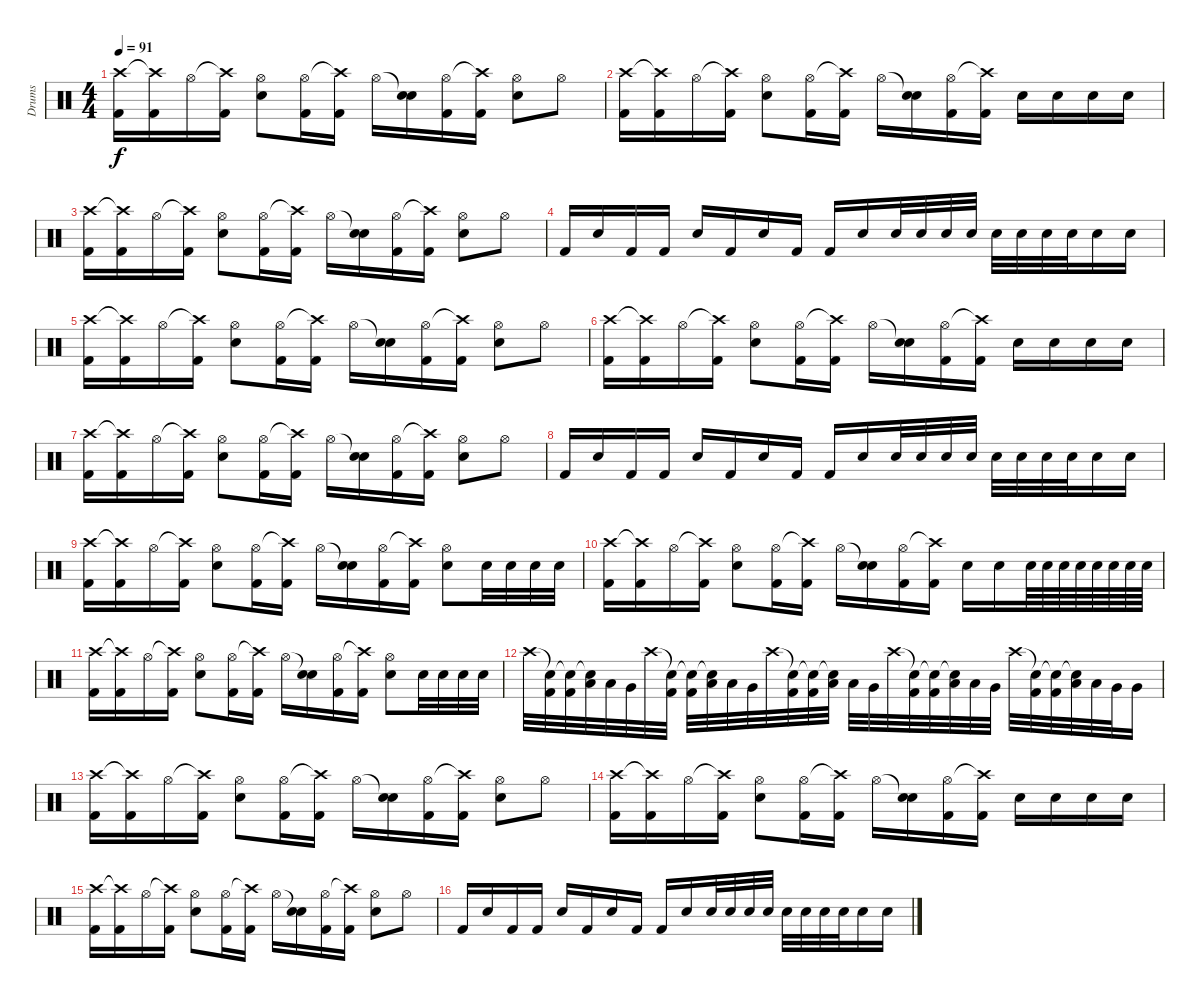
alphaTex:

\track ("Drums" "Drums") {instrument percussion}
\staff {score}
\articulation defaults
\ts (4 4)
\tempo 91
\clef neutral
\ks c
("Crash high (hit)" "Kick (hit) 2").16{dy f} ("Crash high (hit)"{t} "Kick (hit) 2").16 "Hi-Hat (open)".16 ("Crash high (hit)"{t} "Kick (hit) 2").16 ("Hi-Hat (open)" "Electric Snare (hit)").8 ("Hi-Hat (open)" "Kick (hit) 2").16 ("Crash high (hit)"{t} "Kick (hit) 2").16 "Hi-Hat (open)".16 ("Snare (hit)"{t} "Electric Snare (hit)").16 ("Hi-Hat (open)" "Kick (hit) 2").16 ("Crash high (hit)"{t} "Kick (hit) 2").16 ("Hi-Hat (open)" "Electric Snare (hit)").8 "Hi-Hat (open)".8 |
("Crash high (hit)" "Kick (hit) 2").16 ("Crash high (hit)"{t} "Kick (hit) 2").16 "Hi-Hat (open)".16 ("Crash high (hit)"{t} "Kick (hit) 2").16 ("Hi-Hat (open)" "Electric Snare (hit)").8 ("Hi-Hat (open)" "Kick (hit) 2").16 ("Crash high (hit)"{t} "Kick (hit) 2").16 "Hi-Hat (open)".16 ("Snare (hit)"{t} "Electric Snare (hit)").16 ("Hi-Hat (open)" "Kick (hit) 2").16 ("Crash high (hit)"{t} "Kick (hit) 2").16 "Electric Snare (hit)".16 "Electric Snare (hit)".16 "Electric Snare (hit)".16 "Electric Snare (hit)".16 |
("Crash high (hit)" "Kick (hit) 2").16 ("Crash high (hit)"{t} "Kick (hit) 2").16 "Hi-Hat (open)".16 ("Crash high (hit)"{t} "Kick (hit) 2").16 ("Hi-Hat (open)" "Electric Snare (hit)").8 ("Hi-Hat (open)" "Kick (hit) 2").16 ("Crash high (hit)"{t} "Kick (hit) 2").16 "Hi-Hat (open)".16 ("Snare (hit)"{t} "Electric Snare (hit)").16 ("Hi-Hat (open)" "Kick (hit) 2").16 ("Crash high (hit)"{t} "Kick (hit) 2").16 ("Hi-Hat (open)" "Electric Snare (hit)").8 "Hi-Hat (open)".8 |
"Kick (hit) 2".16 "Electric Snare (hit)".16 "Kick (hit) 2".16 "Kick (hit) 2".16 "Electric Snare (hit)".16 "Kick (hit) 2".16 "Electric Snare (hit)".16 "Kick (hit) 2".16 "Kick (hit) 2".16 "Electric Snare (hit)".16 "Electric Snare (hit)".32 "Electric Snare (hit)".32 "Electric Snare (hit)".32 "Electric Snare (hit)".32 "Electric Snare (hit)".32 "Electric Snare (hit)".32 "Electric Snare (hit)".32 "Electric Snare (hit)".32 "Electric Snare (hit)".16 "Electric Snare (hit)".16 |
("Crash high (hit)" "Kick (hit) 2").16 ("Crash high (hit)"{t} "Kick (hit) 2").16 "Hi-Hat (open)".16 ("Crash high (hit)"{t} "Kick (hit) 2").16 ("Hi-Hat (open)" "Electric Snare (hit)").8 ("Hi-Hat (open)" "Kick (hit) 2").16 ("Crash high (hit)"{t} "Kick (hit) 2").16 "Hi-Hat (open)".16 ("Snare (hit)"{t} "Electric Snare (hit)").16 ("Hi-Hat (open)" "Kick (hit) 2").16 ("Crash high (hit)"{t} "Kick (hit) 2").16 ("Hi-Hat (open)" "Electric Snare (hit)").8 "Hi-Hat (open)".8 |
("Crash high (hit)" "Kick (hit) 2").16 ("Crash high (hit)"{t} "Kick (hit) 2").16 "Hi-Hat (open)".16 ("Crash high (hit)"{t} "Kick (hit) 2").16 ("Hi-Hat (open)" "Electric Snare (hit)").8 ("Hi-Hat (open)" "Kick (hit) 2").16 ("Crash high (hit)"{t} "Kick (hit) 2").16 "Hi-Hat (open)".16 ("Snare (hit)"{t} "Electric Snare (hit)").16 ("Hi-Hat (open)" "Kick (hit) 2").16 ("Crash high (hit)"{t} "Kick (hit) 2").16 "Electric Snare (hit)".16 "Electric Snare (hit)".16 "Electric Snare (hit)".16 "Electric Snare (hit)".16 |
("Crash high (hit)" "Kick (hit) 2").16 ("Crash high (hit)"{t} "Kick (hit) 2").16 "Hi-Hat (open)".16 ("Crash high (hit)"{t} "Kick (hit) 2").16 ("Hi-Hat (open)" "Electric Snare (hit)").8 ("Hi-Hat (open)" "Kick (hit) 2").16 ("Crash high (hit)"{t} "Kick (hit) 2").16 "Hi-Hat (open)".16 ("Snare (hit)"{t} "Electric Snare (hit)").16 ("Hi-Hat (open)" "Kick (hit) 2").16 ("Crash high (hit)"{t} "Kick (hit) 2").16 ("Hi-Hat (open)" "Electric Snare (hit)").8 "Hi-Hat (open)".8 |
"Kick (hit) 2".16 "Electric Snare (hit)".16 "Kick (hit) 2".16 "Kick (hit) 2".16 "Electric Snare (hit)".16 "Kick (hit) 2".16 "Electric Snare (hit)".16 "Kick (hit) 2".16 "Kick (hit) 2".16 "Electric Snare (hit)".16 "Electric Snare (hit)".32 "Electric Snare (hit)".32 "Electric Snare (hit)".32 "Electric Snare (hit)".32 "Electric Snare (hit)".32 "Electric Snare (hit)".32 "Electric Snare (hit)".32 "Electric Snare (hit)".32 "Electric Snare (hit)".16 "Electric Snare (hit)".16 |
("Crash high (hit)" "Kick (hit) 2").16 ("Crash high (hit)"{t} "Kick (hit) 2").16 "Hi-Hat (open)".16 ("Crash high (hit)"{t} "Kick (hit) 2").16 ("Hi-Hat (open)" "Electric Snare (hit)").8 ("Hi-Hat (open)" "Kick (hit) 2").16 ("Crash high (hit)"{t} "Kick (hit) 2").16 "Hi-Hat (open)".16 ("Snare (hit)"{t} "Electric Snare (hit)").16 ("Hi-Hat (open)" "Kick (hit) 2").16 ("Crash high (hit)"{t} "Kick (hit) 2").16 ("Hi-Hat (open)" "Electric Snare (hit)").8 "Electric Snare (hit)".32 "Electric Snare (hit)".32 "Electric Snare (hit)".32 "Electric Snare (hit)".32 |
("Crash high (hit)" "Kick (hit) 2").16 ("Crash high (hit)"{t} "Kick (hit) 2").16 "Hi-Hat (open)".16 ("Crash high (hit)"{t} "Kick (hit) 2").16 ("Hi-Hat (open)" "Electric Snare (hit)").8 ("Hi-Hat (open)" "Kick (hit) 2").16 ("Crash high (hit)"{t} "Kick (hit) 2").16 "Hi-Hat (open)".16 ("Snare (hit)"{t} "Electric Snare (hit)").16 ("Hi-Hat (open)" "Kick (hit) 2").16 ("Crash high (hit)"{t} "Kick (hit) 2").16 "Electric Snare (hit)".16 "Electric Snare (hit)".16 "Electric Snare (hit)".64 "Electric Snare (hit)".64 "Electric Snare (hit)".64 "Electric Snare (hit)".64 "Electric Snare (hit)".64 "Electric Snare (hit)".64 "Electric Snare (hit)".64 "Electric Snare (hit)".64 |
("Crash high (hit)" "Kick (hit) 2").16 ("Crash high (hit)"{t} "Kick (hit) 2").16 "Hi-Hat (open)".16 ("Crash high (hit)"{t} "Kick (hit) 2").16 ("Hi-Hat (open)" "Electric Snare (hit)").8 ("Hi-Hat (open)" "Kick (hit) 2").16 ("Crash high (hit)"{t} "Kick (hit) 2").16 "Hi-Hat (open)".16 ("Snare (hit)"{t} "Electric Snare (hit)").16 ("Hi-Hat (open)" "Kick (hit) 2").16 ("Crash high (hit)"{t} "Kick (hit) 2").16 ("Hi-Hat (open)" "Electric Snare (hit)").8 "Electric Snare (hit)".32 "Electric Snare (hit)".32 "Electric Snare (hit)".32 "Electric Snare (hit)".32 |
"Crash high (hit)".32 ("Snare (hit)"{t} "Kick (hit) 2").32 ("Snare (hit)"{t} "Kick (hit) 2").32 ("Snare (hit)"{t} "Low Tom (hit)").32 "Low Tom (hit)".32 "Very Low Tom (hit)".32 "Crash high (hit)".32 ("Snare (hit)"{t} "Kick (hit) 2").32 ("Snare (hit)"{t} "Kick (hit) 2").32 ("Snare (hit)"{t} "Low Tom (hit)").32 "Low Tom (hit)".32 "Very Low Tom (hit)".32 "Crash high (hit)".32 ("Snare (hit)"{t} "Kick (hit) 2").32 ("Snare (hit)"{t} "Kick (hit) 2").32 ("Snare (hit)"{t} "Low Tom (hit)").32 "Low Tom (hit)".32 "Very Low Tom (hit)".32 "Crash high (hit)".32 ("Snare (hit)"{t} "Kick (hit) 2").32 ("Snare (hit)"{t} "Kick (hit) 2").32 ("Snare (hit)"{t} "Low Tom (hit)").32 "Low Tom (hit)".32 "Very Low Tom (hit)".32 "Crash high (hit)".32 ("Snare (hit)"{t} "Kick (hit) 2").32 ("Snare (hit)"{t} "Kick (hit) 2").32 ("Snare (hit)"{t} "Low Tom (hit)").32 "Low Tom (hit)".32 "Very Low Tom (hit)".32 "Very Low Tom (hit)".16 |
("Crash high (hit)" "Kick (hit) 2").16{volume 10} ("Crash high (hit)"{t} "Kick (hit) 2").16 "Hi-Hat (open)".16 ("Crash high (hit)"{t} "Kick (hit) 2").16 ("Hi-Hat (open)" "Electric Snare (hit)").8 ("Hi-Hat (open)" "Kick (hit) 2").16 ("Crash high (hit)"{t} "Kick (hit) 2").16 "Hi-Hat (open)".16 ("Snare (hit)"{t} "Electric Snare (hit)").16 ("Hi-Hat (open)" "Kick (hit) 2").16 ("Crash high (hit)"{t} "Kick (hit) 2").16 ("Hi-Hat (open)" "Electric Snare (hit)").8 "Hi-Hat (open)".8 |
("Crash high (hit)" "Kick (hit) 2").16{volume 8} ("Crash high (hit)"{t} "Kick (hit) 2").16 "Hi-Hat (open)".16 ("Crash high (hit)"{t} "Kick (hit) 2").16 ("Hi-Hat (open)" "Electric Snare (hit)").8 ("Hi-Hat (open)" "Kick (hit) 2").16 ("Crash high (hit)"{t} "Kick (hit) 2").16 "Hi-Hat (open)".16 ("Snare (hit)"{t} "Electric Snare (hit)").16 ("Hi-Hat (open)" "Kick (hit) 2").16 ("Crash high (hit)"{t} "Kick (hit) 2").16 "Electric Snare (hit)".16 "Electric Snare (hit)".16 "Electric Snare (hit)".16 "Electric Snare (hit)".16 |
("Crash high (hit)" "Kick (hit) 2").16{volume 6} ("Crash high (hit)"{t} "Kick (hit) 2").16 "Hi-Hat (open)".16 ("Crash high (hit)"{t} "Kick (hit) 2").16 ("Hi-Hat (open)" "Electric Snare (hit)").8 ("Hi-Hat (open)" "Kick (hit) 2").16 ("Crash high (hit)"{t} "Kick (hit) 2").16 "Hi-Hat (open)".16 ("Snare (hit)"{t} "Electric Snare (hit)").16 ("Hi-Hat (open)" "Kick (hit) 2").16 ("Crash high (hit)"{t} "Kick (hit) 2").16 ("Hi-Hat (open)" "Electric Snare (hit)").8 "Hi-Hat (open)".8 |
"Kick (hit) 2".16{volume 4} "Electric Snare (hit)".16 "Kick (hit) 2".16 "Kick (hit) 2".16 "Electric Snare (hit)".16 "Kick (hit) 2".16 "Electric Snare (hit)".16 "Kick (hit) 2".16 "Kick (hit) 2".16 "Electric Snare (hit)".16 "Electric Snare (hit)".32 "Electric Snare (hit)".32 "Electric Snare (hit)".32 "Electric Snare (hit)".32 "Electric Snare (hit)".32 "Electric Snare (hit)".32 "Electric Snare (hit)".32 "Electric Snare (hit)".32 "Electric Snare (hit)".16 "Electric Snare (hit)".16
